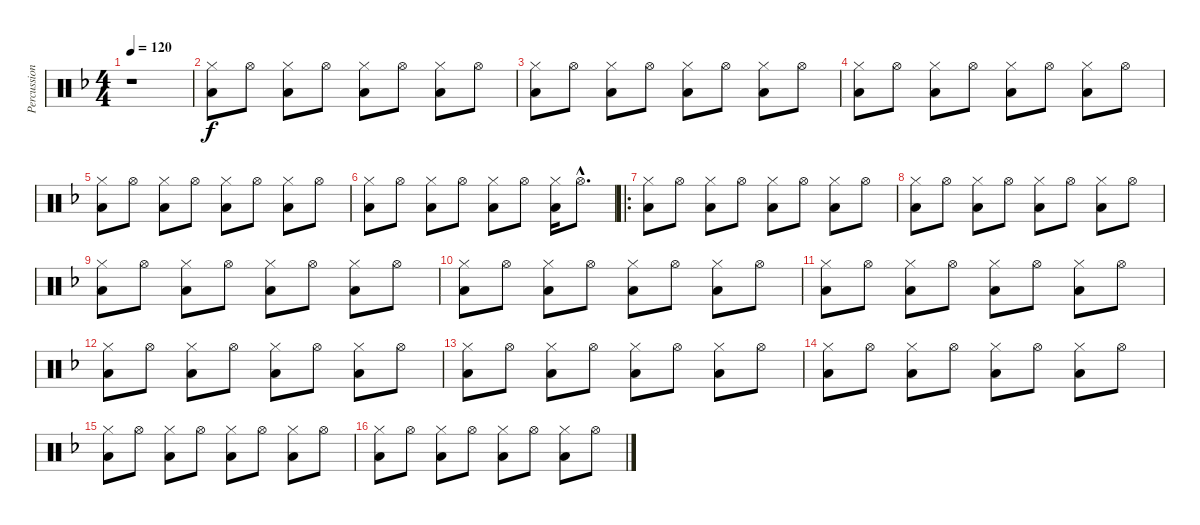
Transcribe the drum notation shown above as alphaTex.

\track ("Percussion" "Percussion") {instrument percussion}
\staff {score}
\articulation defaults
\ts (4 4)
\tempo 120
\clef neutral
\ks f
r.1{dy f} |
("Hi-Hat (closed)" "Low Floor Tom (hit)").8 "Hi-Hat (open)".8 ("Hi-Hat (closed)" "Low Floor Tom (hit)").8 "Hi-Hat (open)".8 ("Hi-Hat (closed)" "Low Floor Tom (hit)").8 "Hi-Hat (open)".8 ("Hi-Hat (closed)" "Low Floor Tom (hit)").8 "Hi-Hat (open)".8 |
("Hi-Hat (closed)" "Low Floor Tom (hit)").8 "Hi-Hat (open)".8 ("Hi-Hat (closed)" "Low Floor Tom (hit)").8 "Hi-Hat (open)".8 ("Hi-Hat (closed)" "Low Floor Tom (hit)").8 "Hi-Hat (open)".8 ("Hi-Hat (closed)" "Low Floor Tom (hit)").8 "Hi-Hat (open)".8 |
("Hi-Hat (closed)" "Low Floor Tom (hit)").8 "Hi-Hat (open)".8 ("Hi-Hat (closed)" "Low Floor Tom (hit)").8 "Hi-Hat (open)".8 ("Hi-Hat (closed)" "Low Floor Tom (hit)").8 "Hi-Hat (open)".8 ("Hi-Hat (closed)" "Low Floor Tom (hit)").8 "Hi-Hat (open)".8 |
("Hi-Hat (closed)" "Low Floor Tom (hit)").8 "Hi-Hat (open)".8 ("Hi-Hat (closed)" "Low Floor Tom (hit)").8 "Hi-Hat (open)".8 ("Hi-Hat (closed)" "Low Floor Tom (hit)").8 "Hi-Hat (open)".8 ("Hi-Hat (closed)" "Low Floor Tom (hit)").8 "Hi-Hat (open)".8 |
("Hi-Hat (closed)" "Low Floor Tom (hit)").8 "Hi-Hat (open)".8 ("Hi-Hat (closed)" "Low Floor Tom (hit)").8 "Hi-Hat (open)".8 ("Hi-Hat (closed)" "Low Floor Tom (hit)").8 "Hi-Hat (open)".8 ("Hi-Hat (closed)" "Low Floor Tom (hit)").16 "Hi-Hat (open)"{hac}.8{d} |
\ro
("Hi-Hat (closed)" "Low Floor Tom (hit)").8 "Hi-Hat (open)".8 ("Hi-Hat (closed)" "Low Floor Tom (hit)").8 "Hi-Hat (open)".8 ("Hi-Hat (closed)" "Low Floor Tom (hit)").8 "Hi-Hat (open)".8 ("Hi-Hat (closed)" "Low Floor Tom (hit)").8 "Hi-Hat (open)".8 |
("Hi-Hat (closed)" "Low Floor Tom (hit)").8 "Hi-Hat (open)".8 ("Hi-Hat (closed)" "Low Floor Tom (hit)").8 "Hi-Hat (open)".8 ("Hi-Hat (closed)" "Low Floor Tom (hit)").8 "Hi-Hat (open)".8 ("Hi-Hat (closed)" "Low Floor Tom (hit)").8 "Hi-Hat (open)".8 |
("Hi-Hat (closed)" "Low Floor Tom (hit)").8 "Hi-Hat (open)".8 ("Hi-Hat (closed)" "Low Floor Tom (hit)").8 "Hi-Hat (open)".8 ("Hi-Hat (closed)" "Low Floor Tom (hit)").8 "Hi-Hat (open)".8 ("Hi-Hat (closed)" "Low Floor Tom (hit)").8 "Hi-Hat (open)".8 |
("Hi-Hat (closed)" "Low Floor Tom (hit)").8 "Hi-Hat (open)".8 ("Hi-Hat (closed)" "Low Floor Tom (hit)").8 "Hi-Hat (open)".8 ("Hi-Hat (closed)" "Low Floor Tom (hit)").8 "Hi-Hat (open)".8 ("Hi-Hat (closed)" "Low Floor Tom (hit)").8 "Hi-Hat (open)".8 |
("Hi-Hat (closed)" "Low Floor Tom (hit)").8 "Hi-Hat (open)".8 ("Hi-Hat (closed)" "Low Floor Tom (hit)").8 "Hi-Hat (open)".8 ("Hi-Hat (closed)" "Low Floor Tom (hit)").8 "Hi-Hat (open)".8 ("Hi-Hat (closed)" "Low Floor Tom (hit)").8 "Hi-Hat (open)".8 |
("Hi-Hat (closed)" "Low Floor Tom (hit)").8 "Hi-Hat (open)".8 ("Hi-Hat (closed)" "Low Floor Tom (hit)").8 "Hi-Hat (open)".8 ("Hi-Hat (closed)" "Low Floor Tom (hit)").8 "Hi-Hat (open)".8 ("Hi-Hat (closed)" "Low Floor Tom (hit)").8 "Hi-Hat (open)".8 |
("Hi-Hat (closed)" "Low Floor Tom (hit)").8 "Hi-Hat (open)".8 ("Hi-Hat (closed)" "Low Floor Tom (hit)").8 "Hi-Hat (open)".8 ("Hi-Hat (closed)" "Low Floor Tom (hit)").8 "Hi-Hat (open)".8 ("Hi-Hat (closed)" "Low Floor Tom (hit)").8 "Hi-Hat (open)".8 |
("Hi-Hat (closed)" "Low Floor Tom (hit)").8 "Hi-Hat (open)".8 ("Hi-Hat (closed)" "Low Floor Tom (hit)").8 "Hi-Hat (open)".8 ("Hi-Hat (closed)" "Low Floor Tom (hit)").8 "Hi-Hat (open)".8 ("Hi-Hat (closed)" "Low Floor Tom (hit)").8 "Hi-Hat (open)".8 |
("Hi-Hat (closed)" "Low Floor Tom (hit)").8 "Hi-Hat (open)".8 ("Hi-Hat (closed)" "Low Floor Tom (hit)").8 "Hi-Hat (open)".8 ("Hi-Hat (closed)" "Low Floor Tom (hit)").8 "Hi-Hat (open)".8 ("Hi-Hat (closed)" "Low Floor Tom (hit)").8 "Hi-Hat (open)".8 |
("Hi-Hat (closed)" "Low Floor Tom (hit)").8 "Hi-Hat (open)".8 ("Hi-Hat (closed)" "Low Floor Tom (hit)").8 "Hi-Hat (open)".8 ("Hi-Hat (closed)" "Low Floor Tom (hit)").8 "Hi-Hat (open)".8 ("Hi-Hat (closed)" "Low Floor Tom (hit)").8 "Hi-Hat (open)".8
